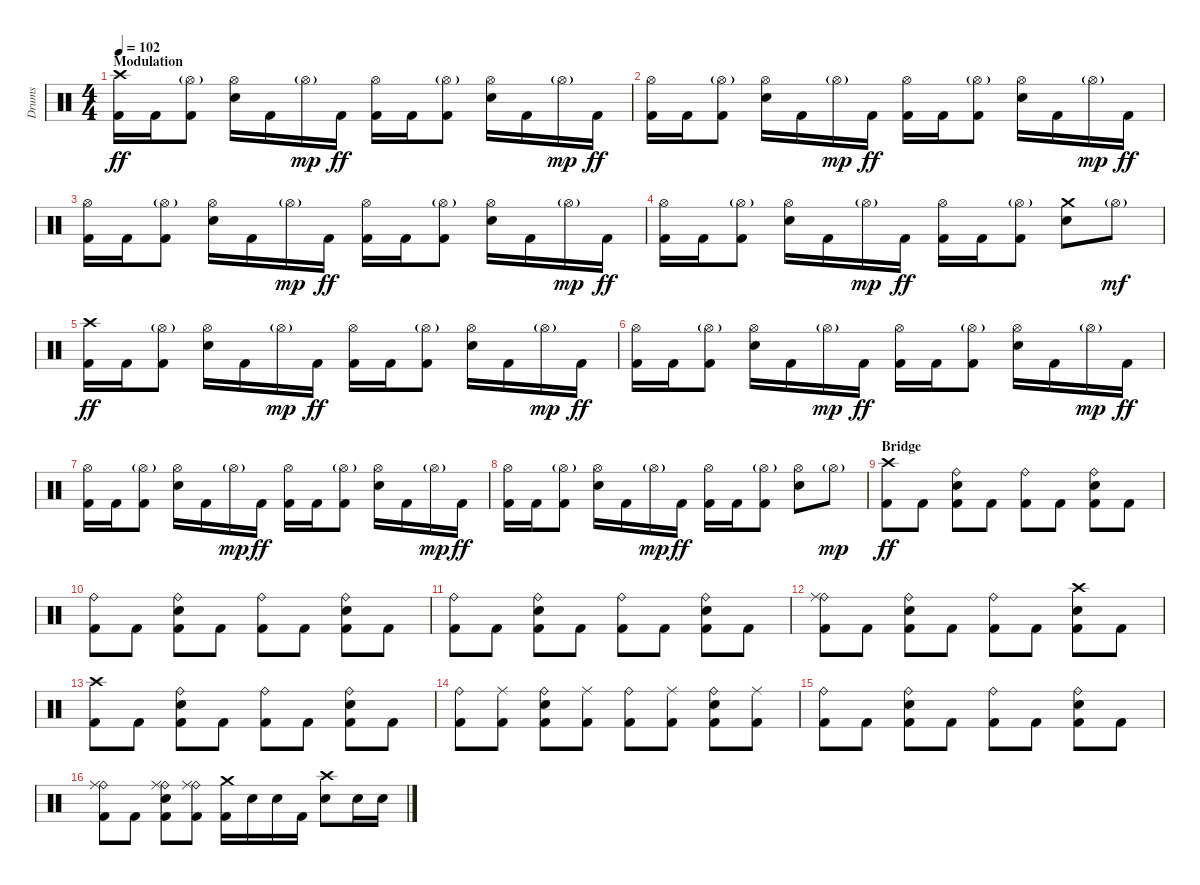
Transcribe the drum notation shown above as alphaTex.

\track ("Drums" "Drums") {instrument percussion}
\staff {score}
\articulation defaults
\ts (4 4)
\section ("" "Modulation")
\tempo 102
\clef neutral
\ks c
("Crash high (hit)" "Kick (hit) 2").16{dy ff} "Kick (hit) 2".16 ("Hi-Hat (open)"{g} "Kick (hit) 2").8 ("Hi-Hat (open)" "Electric Snare (hit)").16 "Kick (hit) 2".16 "Hi-Hat (open)"{g}.16{dy mp} "Kick (hit) 2".16{dy ff} ("Hi-Hat (open)" "Kick (hit) 2").16 "Kick (hit) 2".16 ("Hi-Hat (open)"{g} "Kick (hit) 2").8 ("Hi-Hat (open)" "Electric Snare (hit)").16 "Kick (hit) 2".16 "Hi-Hat (open)"{g}.16{dy mp} "Kick (hit) 2".16{dy ff} |
("Hi-Hat (open)" "Kick (hit) 2").16 "Kick (hit) 2".16 ("Hi-Hat (open)"{g} "Kick (hit) 2").8 ("Hi-Hat (open)" "Electric Snare (hit)").16 "Kick (hit) 2".16 "Hi-Hat (open)"{g}.16{dy mp} "Kick (hit) 2".16{dy ff} ("Hi-Hat (open)" "Kick (hit) 2").16 "Kick (hit) 2".16 ("Hi-Hat (open)"{g} "Kick (hit) 2").8 ("Hi-Hat (open)" "Electric Snare (hit)").16 "Kick (hit) 2".16 "Hi-Hat (open)"{g}.16{dy mp} "Kick (hit) 2".16{dy ff} |
("Hi-Hat (open)" "Kick (hit) 2").16 "Kick (hit) 2".16 ("Hi-Hat (open)"{g} "Kick (hit) 2").8 ("Hi-Hat (open)" "Electric Snare (hit)").16 "Kick (hit) 2".16 "Hi-Hat (open)"{g}.16{dy mp} "Kick (hit) 2".16{dy ff} ("Hi-Hat (open)" "Kick (hit) 2").16 "Kick (hit) 2".16 ("Hi-Hat (open)"{g} "Kick (hit) 2").8 ("Hi-Hat (open)" "Electric Snare (hit)").16 "Kick (hit) 2".16 "Hi-Hat (open)"{g}.16{dy mp} "Kick (hit) 2".16{dy ff} |
("Hi-Hat (open)" "Kick (hit) 2").16 "Kick (hit) 2".16 ("Hi-Hat (open)"{g} "Kick (hit) 2").8 ("Hi-Hat (open)" "Electric Snare (hit)").16 "Kick (hit) 2".16 "Hi-Hat (open)"{g}.16{dy mp} "Kick (hit) 2".16{dy ff} ("Hi-Hat (open)" "Kick (hit) 2").16 "Kick (hit) 2".16 ("Hi-Hat (open)"{g} "Kick (hit) 2").8 ("Crash medium (hit)" "Electric Snare (hit)").8 "Hi-Hat (open)"{g}.8{dy mf} |
("Crash high (hit)" "Kick (hit) 2").16{dy ff} "Kick (hit) 2".16 ("Hi-Hat (open)"{g} "Kick (hit) 2").8 ("Hi-Hat (open)" "Electric Snare (hit)").16 "Kick (hit) 2".16 "Hi-Hat (open)"{g}.16{dy mp} "Kick (hit) 2".16{dy ff} ("Hi-Hat (open)" "Kick (hit) 2").16 "Kick (hit) 2".16 ("Hi-Hat (open)"{g} "Kick (hit) 2").8 ("Hi-Hat (open)" "Electric Snare (hit)").16 "Kick (hit) 2".16 "Hi-Hat (open)"{g}.16{dy mp} "Kick (hit) 2".16{dy ff} |
("Hi-Hat (open)" "Kick (hit) 2").16 "Kick (hit) 2".16 ("Hi-Hat (open)"{g} "Kick (hit) 2").8 ("Hi-Hat (open)" "Electric Snare (hit)").16 "Kick (hit) 2".16 "Hi-Hat (open)"{g}.16{dy mp} "Kick (hit) 2".16{dy ff} ("Hi-Hat (open)" "Kick (hit) 2").16 "Kick (hit) 2".16 ("Hi-Hat (open)"{g} "Kick (hit) 2").8 ("Hi-Hat (open)" "Electric Snare (hit)").16 "Kick (hit) 2".16 "Hi-Hat (open)"{g}.16{dy mp} "Kick (hit) 2".16{dy ff} |
("Hi-Hat (open)" "Kick (hit) 2").16 "Kick (hit) 2".16 ("Hi-Hat (open)"{g} "Kick (hit) 2").8 ("Hi-Hat (open)" "Electric Snare (hit)").16 "Kick (hit) 2".16 "Hi-Hat (open)"{g}.16{dy mp} "Kick (hit) 2".16{dy ff} ("Hi-Hat (open)" "Kick (hit) 2").16 "Kick (hit) 2".16 ("Hi-Hat (open)"{g} "Kick (hit) 2").8 ("Hi-Hat (open)" "Electric Snare (hit)").16 "Kick (hit) 2".16 "Hi-Hat (open)"{g}.16{dy mp} "Kick (hit) 2".16{dy ff} |
("Hi-Hat (open)" "Kick (hit) 2").16 "Kick (hit) 2".16 ("Hi-Hat (open)"{g} "Kick (hit) 2").8 ("Hi-Hat (open)" "Electric Snare (hit)").16 "Kick (hit) 2".16 "Hi-Hat (open)"{g}.16{dy mp} "Kick (hit) 2".16{dy ff} ("Hi-Hat (open)" "Kick (hit) 2").16 "Kick (hit) 2".16 ("Hi-Hat (open)"{g} "Kick (hit) 2").8 ("Hi-Hat (open)" "Electric Snare (hit)").8 "Hi-Hat (open)"{g}.8{dy mp} |
\section ("" "Bridge")
("Crash high (hit)" "Kick (hit) 2").8{dy ff} "Kick (hit) 2".8 ("Ride (bell)" "Electric Snare (hit)" "Kick (hit) 2").8 "Kick (hit) 2".8 ("Ride (bell)" "Kick (hit) 2").8 "Kick (hit) 2".8 ("Ride (bell)" "Electric Snare (hit)" "Kick (hit) 2").8 "Kick (hit) 2".8 |
("Ride (bell)" "Kick (hit) 2").8 "Kick (hit) 2".8 ("Ride (bell)" "Electric Snare (hit)" "Kick (hit) 2").8 "Kick (hit) 2".8 ("Ride (bell)" "Kick (hit) 2").8 "Kick (hit) 2".8 ("Ride (bell)" "Electric Snare (hit)" "Kick (hit) 2").8 "Kick (hit) 2".8 |
("Ride (bell)" "Kick (hit) 2").8 "Kick (hit) 2".8 ("Ride (bell)" "Electric Snare (hit)" "Kick (hit) 2").8 "Kick (hit) 2".8 ("Ride (bell)" "Kick (hit) 2").8 "Kick (hit) 2".8 ("Ride (bell)" "Electric Snare (hit)" "Kick (hit) 2").8 "Kick (hit) 2".8 |
("Ride (bell)" "Ride (middle)" "Kick (hit) 2").8 "Kick (hit) 2".8 ("Ride (bell)" "Electric Snare (hit)" "Kick (hit) 2").8 "Kick (hit) 2".8 ("Ride (bell)" "Kick (hit) 2").8 "Kick (hit) 2".8 ("Crash high (hit)" "Electric Snare (hit)" "Kick (hit) 2").8 "Kick (hit) 2".8 |
("Crash high (hit)" "Kick (hit) 2").8 "Kick (hit) 2".8 ("Ride (bell)" "Electric Snare (hit)" "Kick (hit) 2").8 "Kick (hit) 2".8 ("Ride (bell)" "Kick (hit) 2").8 "Kick (hit) 2".8 ("Ride (bell)" "Electric Snare (hit)" "Kick (hit) 2").8 "Kick (hit) 2".8 |
("Ride (bell)" "Kick (hit) 2").8 ("Ride (middle)" "Kick (hit) 2").8 ("Ride (bell)" "Electric Snare (hit)" "Kick (hit) 2").8 ("Ride (middle)" "Kick (hit) 2").8 ("Ride (bell)" "Kick (hit) 2").8 ("Ride (middle)" "Kick (hit) 2").8 ("Ride (bell)" "Electric Snare (hit)" "Kick (hit) 2").8 ("Ride (middle)" "Kick (hit) 2").8 |
("Ride (bell)" "Kick (hit) 2").8 "Kick (hit) 2".8 ("Ride (bell)" "Electric Snare (hit)" "Kick (hit) 2").8 "Kick (hit) 2".8 ("Ride (bell)" "Kick (hit) 2").8 "Kick (hit) 2".8 ("Ride (bell)" "Electric Snare (hit)" "Kick (hit) 2").8 "Kick (hit) 2".8 |
("Ride (bell)" "Ride (middle)" "Kick (hit) 2").8 "Kick (hit) 2".8 ("Ride (bell)" "Ride (middle)" "Electric Snare (hit)" "Kick (hit) 2").8 ("Ride (bell)" "Ride (middle)" "Kick (hit) 2").8 ("Crash medium (hit)" "Kick (hit) 2").16 "Electric Snare (hit)".16 "Electric Snare (hit)".16 "Kick (hit) 2".16 ("Crash high (hit)" "Electric Snare (hit)").8 "Electric Snare (hit)".16 "Electric Snare (hit)".16
